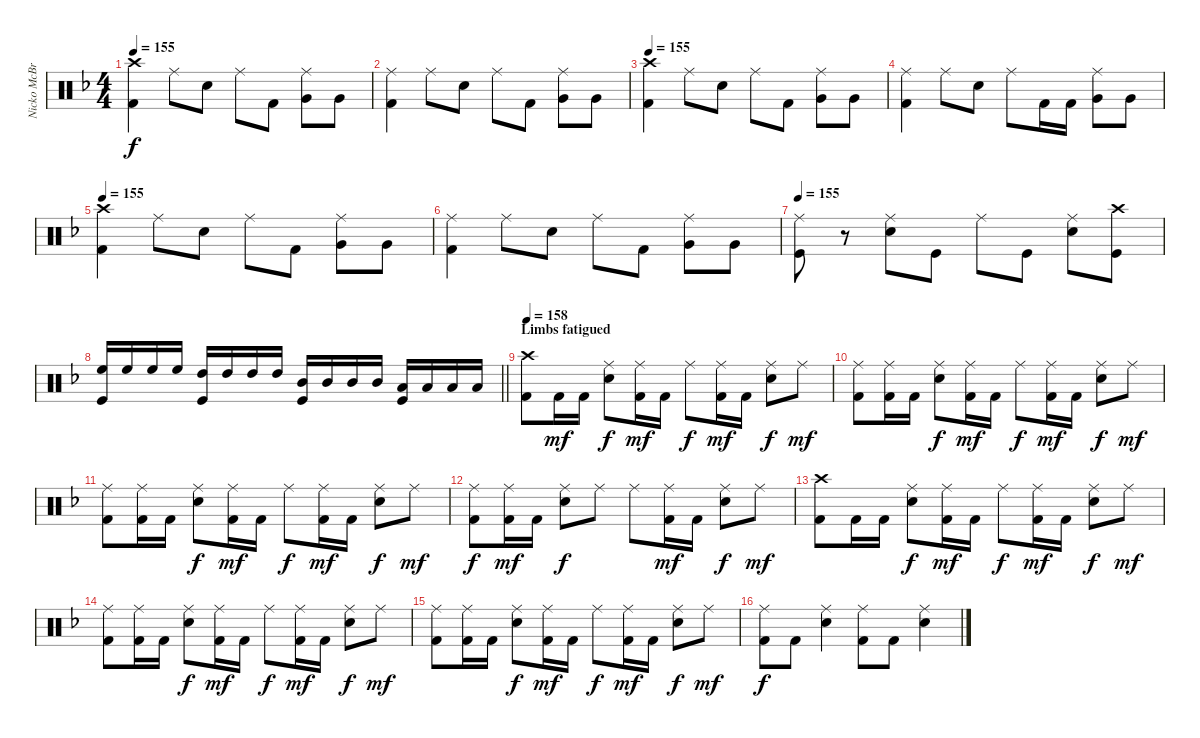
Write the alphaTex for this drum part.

\track ("Nicko McBrain" "Nicko McBr") {instrument percussion}
\staff {score}
\articulation defaults
\ts (4 4)
\tempo 155
\clef neutral
\ks f
("Crash high (hit)" "Kick (hit) 2").4{dy f} "Ride (middle)".8 "Electric Snare (hit)".8 "Ride (middle)".8 "Kick (hit) 2".8 ("Ride (middle)" "Very Low Tom (hit)").8 "Very Low Tom (hit)".8 |
("Ride (middle)" "Kick (hit) 2").4 "Ride (middle)".8 "Electric Snare (hit)".8 "Ride (middle)".8 "Kick (hit) 2".8 ("Ride (middle)" "Very Low Tom (hit)").8 "Very Low Tom (hit)".8 |
\tempo 155
("Crash high (hit)" "Kick (hit) 2").4 "Ride (middle)".8 "Electric Snare (hit)".8 "Ride (middle)".8 "Kick (hit) 2".8 ("Ride (middle)" "Very Low Tom (hit)").8 "Very Low Tom (hit)".8 |
("Ride (middle)" "Kick (hit) 2").4 "Ride (middle)".8 "Electric Snare (hit)".8 "Ride (middle)".8 "Kick (hit) 2".16 "Kick (hit) 2".16 ("Ride (middle)" "Very Low Tom (hit)").8 "Very Low Tom (hit)".8 |
\tempo 155
("Crash high (hit)" "Kick (hit) 2").4 "Ride (middle)".8 "Electric Snare (hit)".8 "Ride (middle)".8 "Kick (hit) 2".8 ("Ride (middle)" "Very Low Tom (hit)").8 "Very Low Tom (hit)".8 |
("Ride (middle)" "Kick (hit) 2").4 "Ride (middle)".8 "Electric Snare (hit)".8 "Ride (middle)".8 "Kick (hit) 2".8 ("Ride (middle)" "Very Low Tom (hit)").8 "Very Low Tom (hit)".8 |
\tempo 155
("Kick (hit)" "Ride (middle)").8 r.8 ("Snare (hit) 2" "Ride (middle)").8 "Kick (hit)".8 "Ride (middle)".8 "Kick (hit)".8 ("Snare (hit) 2" "Ride (middle)").8 ("Crash high (hit)" "Kick (hit)").8 |
\barLineRight lightlight
("High Floor Tom (hit)" "Kick (hit)").16 "High Floor Tom (hit)".16 "High Floor Tom (hit)".16 "High Floor Tom (hit)".16 ("High Tom (hit)" "Kick (hit)").16 "High Tom (hit)".16 "High Tom (hit)".16 "High Tom (hit)".16 ("Mid Tom (hit)" "Kick (hit)").16 "Mid Tom (hit)".16 "Mid Tom (hit)".16 "Mid Tom (hit)".16 ("Low Tom (hit)" "Kick (hit)").16 "Low Tom (hit)".16 "Low Tom (hit)".16 "Low Tom (hit)".16 |
\section ("" "Limbs fatigued")
\tempo 158
("Crash high (hit)" "Kick (hit) 2").8 "Kick (hit) 2".16{dy mf} "Kick (hit) 2".16 ("Ride (middle)" "Electric Snare (hit)").8{dy f} ("Ride (middle)" "Kick (hit) 2").16{dy mf} "Kick (hit) 2".16 "Ride (middle)".8{dy f} ("Ride (middle)" "Kick (hit) 2").16{dy mf} "Kick (hit) 2".16 ("Ride (middle)" "Electric Snare (hit)").8{dy f} "Ride (middle)".8{dy mf} |
("Ride (middle)" "Kick (hit) 2").8 ("Ride (middle)" "Kick (hit) 2").16 "Kick (hit) 2".16 ("Ride (middle)" "Electric Snare (hit)").8{dy f} ("Ride (middle)" "Kick (hit) 2").16{dy mf} "Kick (hit) 2".16 "Ride (middle)".8{dy f} ("Ride (middle)" "Kick (hit) 2").16{dy mf} "Kick (hit) 2".16 ("Ride (middle)" "Electric Snare (hit)").8{dy f} "Ride (middle)".8{dy mf} |
("Ride (middle)" "Kick (hit) 2").8 ("Ride (middle)" "Kick (hit) 2").16 "Kick (hit) 2".16 ("Ride (middle)" "Electric Snare (hit)").8{dy f} ("Ride (middle)" "Kick (hit) 2").16{dy mf} "Kick (hit) 2".16 "Ride (middle)".8{dy f} ("Ride (middle)" "Kick (hit) 2").16{dy mf} "Kick (hit) 2".16 ("Ride (middle)" "Electric Snare (hit)").8{dy f} "Ride (middle)".8{dy mf} |
("Ride (middle)" "Kick (hit) 2").8{dy f} ("Ride (middle)" "Kick (hit) 2").16{dy mf} "Kick (hit) 2".16 ("Ride (middle)" "Electric Snare (hit)").8{dy f} "Ride (middle)".8 "Ride (middle)".8 ("Ride (middle)" "Kick (hit) 2").16{dy mf} "Kick (hit) 2".16 ("Ride (middle)" "Electric Snare (hit)").8{dy f} "Ride (middle)".8{dy mf} |
("Crash high (hit)" "Kick (hit) 2").8 "Kick (hit) 2".16 "Kick (hit) 2".16 ("Ride (middle)" "Electric Snare (hit)").8{dy f} ("Ride (middle)" "Kick (hit) 2").16{dy mf} "Kick (hit) 2".16 "Ride (middle)".8{dy f} ("Ride (middle)" "Kick (hit) 2").16{dy mf} "Kick (hit) 2".16 ("Ride (middle)" "Electric Snare (hit)").8{dy f} "Ride (middle)".8{dy mf} |
("Ride (middle)" "Kick (hit) 2").8 ("Ride (middle)" "Kick (hit) 2").16 "Kick (hit) 2".16 ("Ride (middle)" "Electric Snare (hit)").8{dy f} ("Ride (middle)" "Kick (hit) 2").16{dy mf} "Kick (hit) 2".16 "Ride (middle)".8{dy f} ("Ride (middle)" "Kick (hit) 2").16{dy mf} "Kick (hit) 2".16 ("Ride (middle)" "Electric Snare (hit)").8{dy f} "Ride (middle)".8{dy mf} |
("Ride (middle)" "Kick (hit) 2").8 ("Ride (middle)" "Kick (hit) 2").16 "Kick (hit) 2".16 ("Ride (middle)" "Electric Snare (hit)").8{dy f} ("Ride (middle)" "Kick (hit) 2").16{dy mf} "Kick (hit) 2".16 "Ride (middle)".8{dy f} ("Ride (middle)" "Kick (hit) 2").16{dy mf} "Kick (hit) 2".16 ("Ride (middle)" "Electric Snare (hit)").8{dy f} "Ride (middle)".8{dy mf} |
("Ride (middle)" "Kick (hit) 2").8{dy f} "Kick (hit) 2".8 ("Ride (middle)" "Electric Snare (hit)").4 ("Ride (middle)" "Kick (hit) 2").8 "Kick (hit) 2".8 ("Ride (middle)" "Electric Snare (hit)").4
